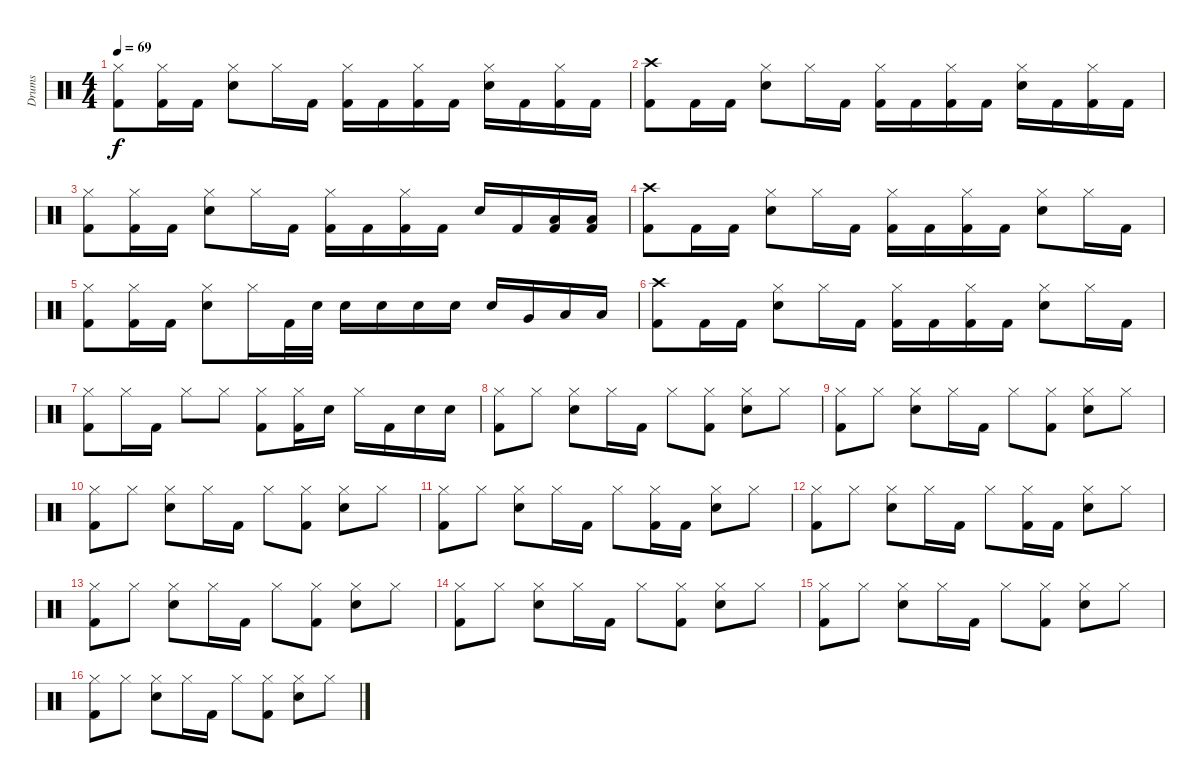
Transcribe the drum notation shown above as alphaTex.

\track ("Drums" "Drums") {instrument percussion}
\staff {score}
\articulation defaults
\ts (4 4)
\tempo 69
\clef neutral
\ks c
("Hi-Hat (closed)" "Kick (hit) 2").8{dy f} ("Hi-Hat (closed)" "Kick (hit) 2").16 "Kick (hit) 2".16 ("Hi-Hat (closed)" "Snare (hit) 2").8 "Hi-Hat (closed)".16 "Kick (hit) 2".16 ("Hi-Hat (closed)" "Kick (hit) 2").16 "Kick (hit) 2".16 ("Hi-Hat (closed)" "Kick (hit) 2").16 "Kick (hit) 2".16 ("Hi-Hat (closed)" "Snare (hit) 2").16 "Kick (hit) 2".16 ("Hi-Hat (closed)" "Kick (hit) 2").16 "Kick (hit) 2".16 |
("Crash high (hit)" "Kick (hit) 2").8 "Kick (hit) 2".16 "Kick (hit) 2".16 ("Hi-Hat (closed)" "Snare (hit) 2").8 "Hi-Hat (closed)".16 "Kick (hit) 2".16 ("Hi-Hat (closed)" "Kick (hit) 2").16 "Kick (hit) 2".16 ("Hi-Hat (closed)" "Kick (hit) 2").16 "Kick (hit) 2".16 ("Hi-Hat (closed)" "Snare (hit) 2").16 "Kick (hit) 2".16 ("Hi-Hat (closed)" "Kick (hit) 2").16 "Kick (hit) 2".16 |
("Kick (hit) 2" "Hi-Hat (closed)").8 ("Hi-Hat (closed)" "Kick (hit) 2").16 "Kick (hit) 2".16 ("Hi-Hat (closed)" "Snare (hit) 2").8 "Hi-Hat (closed)".16 "Kick (hit) 2".16 ("Hi-Hat (closed)" "Kick (hit) 2").16 "Kick (hit) 2".16 ("Hi-Hat (closed)" "Kick (hit) 2").16 "Kick (hit) 2".16 "Snare (hit) 2".16 "Kick (hit) 2".16 ("Low Tom (hit)" "Kick (hit) 2").16 ("Low Tom (hit)" "Kick (hit) 2").16 |
("Crash high (hit)" "Kick (hit) 2").8 "Kick (hit) 2".16 "Kick (hit) 2".16 ("Snare (hit) 2" "Hi-Hat (closed)").8 "Hi-Hat (closed)".16 "Kick (hit) 2".16 ("Hi-Hat (closed)" "Kick (hit) 2").16 "Kick (hit) 2".16 ("Hi-Hat (closed)" "Kick (hit) 2").16 "Kick (hit) 2".16 ("Snare (hit) 2" "Hi-Hat (closed)").8 "Hi-Hat (closed)".16 "Kick (hit) 2".16 |
("Hi-Hat (closed)" "Kick (hit) 2").8 ("Hi-Hat (closed)" "Kick (hit) 2").16 "Kick (hit) 2".16 ("Hi-Hat (closed)" "Snare (hit) 2").8 "Hi-Hat (closed)".16 "Kick (hit) 2".32 "Snare (hit) 2".32 "Snare (hit) 2".16 "Snare (hit) 2".16 "Snare (hit) 2".16 "Snare (hit) 2".16 "Snare (hit) 2".16 "Very Low Tom (hit)".16 "Low Floor Tom (hit)".16 "Low Floor Tom (hit)".16 |
("Crash high (hit)" "Kick (hit) 2").8 "Kick (hit) 2".16 "Kick (hit) 2".16 ("Snare (hit) 2" "Hi-Hat (closed)").8 "Hi-Hat (closed)".16 "Kick (hit) 2".16 ("Hi-Hat (closed)" "Kick (hit) 2").16 "Kick (hit) 2".16 ("Hi-Hat (closed)" "Kick (hit) 2").16 "Kick (hit) 2".16 ("Snare (hit) 2" "Hi-Hat (closed)").8 "Hi-Hat (closed)".16 "Kick (hit) 2".16 |
("Hi-Hat (closed)" "Kick (hit) 2").8 "Hi-Hat (closed)".16 "Kick (hit) 2".16 "Hi-Hat (closed)".8 "Hi-Hat (closed)".8 ("Hi-Hat (closed)" "Kick (hit) 2").8 ("Hi-Hat (closed)" "Kick (hit) 2").16 "Snare (hit) 2".16 "Hi-Hat (closed)".16 "Kick (hit) 2".16 "Snare (hit) 2".16 "Snare (hit) 2".16 |
("Hi-Hat (closed)" "Kick (hit) 2").8 "Hi-Hat (closed)".8 ("Hi-Hat (closed)" "Snare (hit) 2").8 "Hi-Hat (closed)".16 "Kick (hit) 2".16 "Hi-Hat (closed)".8 ("Kick (hit) 2" "Hi-Hat (closed)").8 ("Hi-Hat (closed)" "Snare (hit) 2").8 "Hi-Hat (closed)".8 |
("Hi-Hat (closed)" "Kick (hit) 2").8 "Hi-Hat (closed)".8 ("Hi-Hat (closed)" "Snare (hit) 2").8 "Hi-Hat (closed)".16 "Kick (hit) 2".16 "Hi-Hat (closed)".8 ("Kick (hit) 2" "Hi-Hat (closed)").8 ("Hi-Hat (closed)" "Snare (hit) 2").8 "Hi-Hat (closed)".8 |
("Hi-Hat (closed)" "Kick (hit) 2").8 "Hi-Hat (closed)".8 ("Hi-Hat (closed)" "Snare (hit) 2").8 "Hi-Hat (closed)".16 "Kick (hit) 2".16 "Hi-Hat (closed)".8 ("Kick (hit) 2" "Hi-Hat (closed)").8 ("Hi-Hat (closed)" "Snare (hit) 2").8 "Hi-Hat (closed)".8 |
("Hi-Hat (closed)" "Kick (hit) 2").8 "Hi-Hat (closed)".8 ("Hi-Hat (closed)" "Snare (hit) 2").8 "Hi-Hat (closed)".16 "Kick (hit) 2".16 "Hi-Hat (closed)".8 ("Kick (hit) 2" "Hi-Hat (closed)").16 "Kick (hit) 2".16 ("Hi-Hat (closed)" "Snare (hit) 2").8 "Hi-Hat (closed)".8 |
("Hi-Hat (closed)" "Kick (hit) 2").8 "Hi-Hat (closed)".8 ("Hi-Hat (closed)" "Snare (hit) 2").8 "Hi-Hat (closed)".16 "Kick (hit) 2".16 "Hi-Hat (closed)".8 ("Kick (hit) 2" "Hi-Hat (closed)").16 "Kick (hit) 2".16 ("Hi-Hat (closed)" "Snare (hit) 2").8 "Hi-Hat (closed)".8 |
("Hi-Hat (closed)" "Kick (hit) 2").8 "Hi-Hat (closed)".8 ("Hi-Hat (closed)" "Snare (hit) 2").8 "Hi-Hat (closed)".16 "Kick (hit) 2".16 "Hi-Hat (closed)".8 ("Kick (hit) 2" "Hi-Hat (closed)").8 ("Hi-Hat (closed)" "Snare (hit) 2").8 "Hi-Hat (closed)".8 |
("Hi-Hat (closed)" "Kick (hit) 2").8 "Hi-Hat (closed)".8 ("Hi-Hat (closed)" "Snare (hit) 2").8 "Hi-Hat (closed)".16 "Kick (hit) 2".16 "Hi-Hat (closed)".8 ("Kick (hit) 2" "Hi-Hat (closed)").8 ("Hi-Hat (closed)" "Snare (hit) 2").8 "Hi-Hat (closed)".8 |
("Hi-Hat (closed)" "Kick (hit) 2").8 "Hi-Hat (closed)".8 ("Hi-Hat (closed)" "Snare (hit) 2").8 "Hi-Hat (closed)".16 "Kick (hit) 2".16 "Hi-Hat (closed)".8 ("Kick (hit) 2" "Hi-Hat (closed)").8 ("Hi-Hat (closed)" "Snare (hit) 2").8 "Hi-Hat (closed)".8 |
("Hi-Hat (closed)" "Kick (hit) 2").8 "Hi-Hat (closed)".8 ("Hi-Hat (closed)" "Snare (hit) 2").8 "Hi-Hat (closed)".16 "Kick (hit) 2".16 "Hi-Hat (closed)".8 ("Kick (hit) 2" "Hi-Hat (closed)").8 ("Hi-Hat (closed)" "Snare (hit) 2").8 "Hi-Hat (closed)".8
